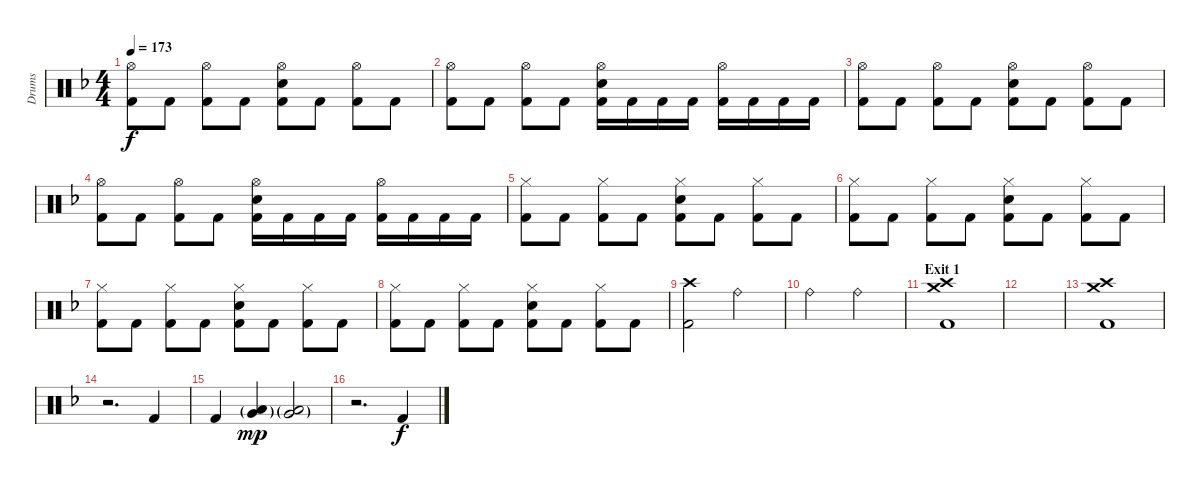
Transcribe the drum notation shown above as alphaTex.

\track ("Drums" "Drums") {instrument percussion}
\staff {score}
\articulation defaults
\ts (4 4)
\tempo 173
\clef neutral
\ks dminor
("Hi-Hat (open)" "Kick (hit) 2").8{dy f} "Kick (hit) 2".8 ("Hi-Hat (open)" "Kick (hit) 2").8 "Kick (hit) 2".8 ("Hi-Hat (open)" "Snare (hit) 2" "Kick (hit) 2").8 "Kick (hit) 2".8 ("Hi-Hat (open)" "Kick (hit) 2").8 "Kick (hit) 2".8 |
("Hi-Hat (open)" "Kick (hit) 2").8 "Kick (hit) 2".8 ("Hi-Hat (open)" "Kick (hit) 2").8 "Kick (hit) 2".8 ("Hi-Hat (open)" "Snare (hit) 2" "Kick (hit) 2").16 "Kick (hit) 2".16 "Kick (hit) 2".16 "Kick (hit) 2".16 ("Hi-Hat (open)" "Kick (hit) 2").16 "Kick (hit) 2".16 "Kick (hit) 2".16 "Kick (hit) 2".16 |
("Hi-Hat (open)" "Kick (hit) 2").8 "Kick (hit) 2".8 ("Hi-Hat (open)" "Kick (hit) 2").8 "Kick (hit) 2".8 ("Hi-Hat (open)" "Snare (hit) 2" "Kick (hit) 2").8 "Kick (hit) 2".8 ("Hi-Hat (open)" "Kick (hit) 2").8 "Kick (hit) 2".8 |
("Hi-Hat (open)" "Kick (hit) 2").8 "Kick (hit) 2".8 ("Hi-Hat (open)" "Kick (hit) 2").8 "Kick (hit) 2".8 ("Hi-Hat (open)" "Snare (hit) 2" "Kick (hit) 2").16 "Kick (hit) 2".16 "Kick (hit) 2".16 "Kick (hit) 2".16 ("Hi-Hat (open)" "Kick (hit) 2").16 "Kick (hit) 2".16 "Kick (hit) 2".16 "Kick (hit) 2".16 |
("Hi-Hat (closed)" "Kick (hit) 2").8 "Kick (hit) 2".8 ("Hi-Hat (closed)" "Kick (hit) 2").8 "Kick (hit) 2".8 ("Hi-Hat (closed)" "Snare (hit) 2" "Kick (hit) 2").8 "Kick (hit) 2".8 ("Hi-Hat (closed)" "Kick (hit) 2").8 "Kick (hit) 2".8 |
("Hi-Hat (closed)" "Kick (hit) 2").8 "Kick (hit) 2".8 ("Hi-Hat (closed)" "Kick (hit) 2").8 "Kick (hit) 2".8 ("Hi-Hat (closed)" "Snare (hit) 2" "Kick (hit) 2").8 "Kick (hit) 2".8 ("Hi-Hat (closed)" "Kick (hit) 2").8 "Kick (hit) 2".8 |
("Hi-Hat (closed)" "Kick (hit) 2").8 "Kick (hit) 2".8 ("Hi-Hat (closed)" "Kick (hit) 2").8 "Kick (hit) 2".8 ("Hi-Hat (closed)" "Snare (hit) 2" "Kick (hit) 2").8 "Kick (hit) 2".8 ("Hi-Hat (closed)" "Kick (hit) 2").8 "Kick (hit) 2".8 |
("Hi-Hat (closed)" "Kick (hit) 2").8 "Kick (hit) 2".8 ("Hi-Hat (closed)" "Kick (hit) 2").8 "Kick (hit) 2".8 ("Hi-Hat (closed)" "Snare (hit) 2" "Kick (hit) 2").8 "Kick (hit) 2".8 ("Hi-Hat (closed)" "Kick (hit) 2").8 "Kick (hit) 2".8 |
("Crash high (hit)" "Kick (hit) 2").2 "Ride (bell)".2 |
"Ride (bell)".2 "Ride (bell)".2 |
\section ("" "Exit 1")
("Crash medium (hit)" "Crash high (hit)" "Kick (hit) 2").1 |
|
("Crash medium (hit)" "Crash high (hit)" "Kick (hit) 2").1 |
r.2{d} "Kick (hit) 2".4 |
"Kick (hit) 2".4 ("Low Floor Tom (hit)"{g} "Very Low Tom (hit)"{g}).4{dy mp} ("Low Floor Tom (hit)"{g} "Very Low Tom (hit)"{g}).2 |
r.2{d} "Kick (hit) 2".4{dy f}
